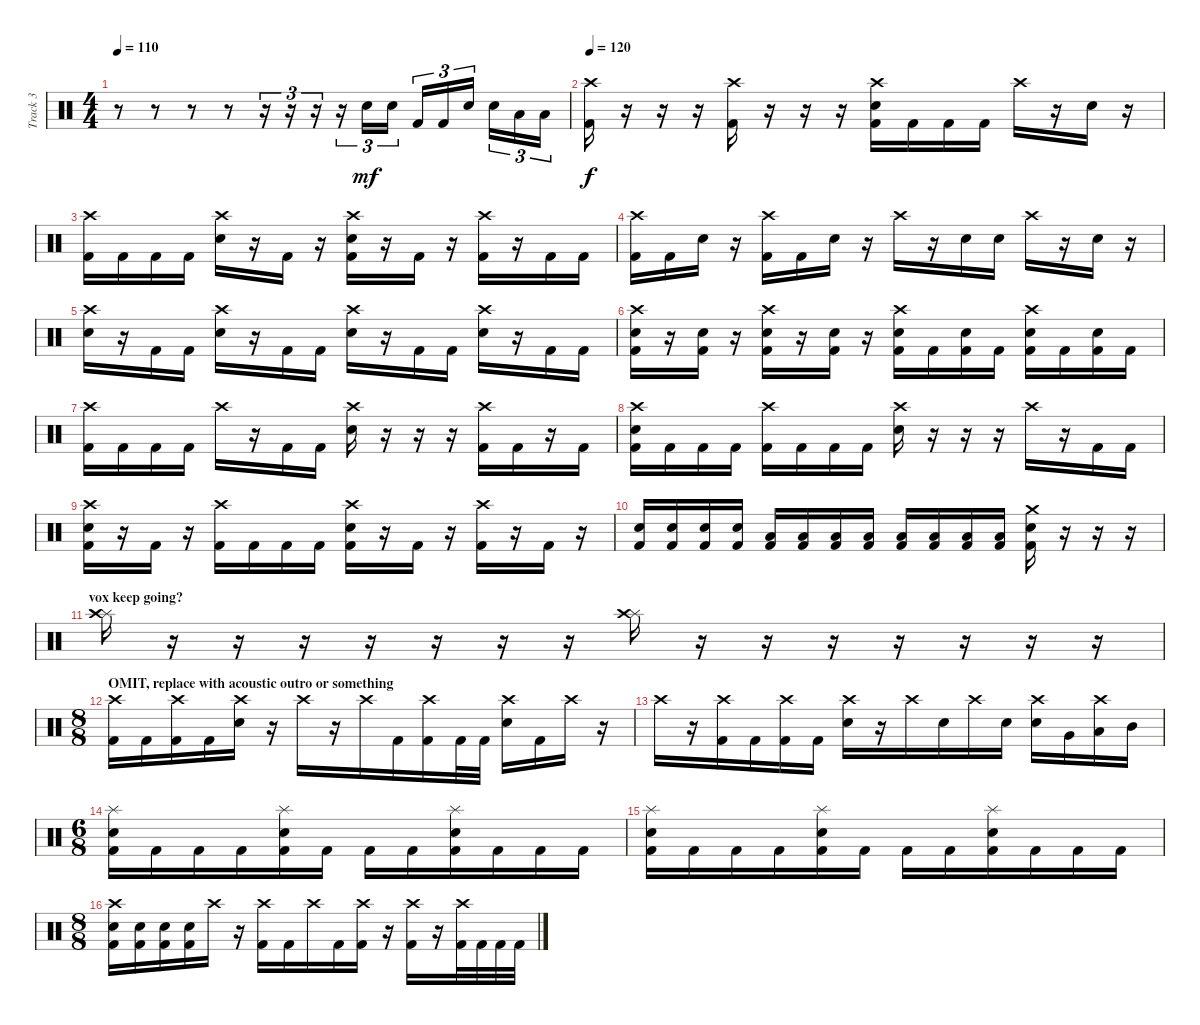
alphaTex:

\track ("Track 3" "Track 3") {instrument percussion}
\staff {score}
\articulation defaults
\ts (4 4)
\tempo 110
\clef neutral
\ks c
r.8{dy mp} r.8 r.8 r.8 r.16{tu (3 2)} r.16{tu (3 2)} r.16{tu (3 2)} r.16{tu (3 2)} "Electric Snare (hit)".16{tu (3 2) dy mf} "Electric Snare (hit)".16{tu (3 2)} "Kick (hit) 2".16{tu (3 2)} "Kick (hit) 2".16{tu (3 2)} "Electric Snare (hit)".16{tu (3 2)} "Electric Snare (hit)".16{tu (3 2)} "Low Tom (hit)".16{tu (3 2)} "Low Tom (hit)".16{tu (3 2)} |
\tempo 120
("Crash high (hit)" "Kick (hit) 2").16{dy f} r.16 r.16 r.16 ("Crash high (hit)" "Kick (hit) 2").16 r.16 r.16 r.16 ("Crash high (hit)" "Electric Snare (hit)" "Kick (hit) 2").16 "Kick (hit) 2".16 "Kick (hit) 2".16 "Kick (hit) 2".16 "Crash high (hit)".16 r.16 "Electric Snare (hit)".16 r.16 |
("Crash high (hit)" "Kick (hit) 2").16 "Kick (hit) 2".16 "Kick (hit) 2".16 "Kick (hit) 2".16 ("Crash high (hit)" "Electric Snare (hit)").16 r.16 "Kick (hit) 2".16 r.16 ("Electric Snare (hit)" "Crash high (hit)" "Kick (hit) 2").16 r.16 "Kick (hit) 2".16 r.16 ("Crash high (hit)" "Kick (hit) 2").16 r.16 "Kick (hit) 2".16 "Kick (hit) 2".16 |
("Crash high (hit)" "Kick (hit) 2").16 "Kick (hit) 2".16 "Electric Snare (hit)".16 r.16 ("Crash high (hit)" "Kick (hit) 2").16 "Kick (hit) 2".16 "Electric Snare (hit)".16 r.16 "Crash high (hit)".16 r.16 "Electric Snare (hit)".16 "Electric Snare (hit)".16 "Crash high (hit)".16 r.16 "Electric Snare (hit)".16 r.16 |
("Crash high (hit)" "Electric Snare (hit)").16 r.16 "Kick (hit) 2".16 "Kick (hit) 2".16 ("Crash high (hit)" "Electric Snare (hit)").16 r.16 "Kick (hit) 2".16 "Kick (hit) 2".16 ("Crash high (hit)" "Electric Snare (hit)").16 r.16 "Kick (hit) 2".16 "Kick (hit) 2".16 ("Crash high (hit)" "Electric Snare (hit)").16 r.16 "Kick (hit) 2".16 "Kick (hit) 2".16 |
("Kick (hit) 2" "Crash high (hit)" "Electric Snare (hit)").16 r.16 ("Kick (hit) 2" "Electric Snare (hit)").16 r.16 ("Kick (hit) 2" "Crash high (hit)" "Electric Snare (hit)").16 r.16 ("Kick (hit) 2" "Electric Snare (hit)").16 r.16 ("Kick (hit) 2" "Crash high (hit)" "Electric Snare (hit)").16 "Kick (hit) 2".16 ("Kick (hit) 2" "Electric Snare (hit)").16 "Kick (hit) 2".16 ("Kick (hit) 2" "Crash high (hit)" "Electric Snare (hit)").16 "Kick (hit) 2".16 ("Kick (hit) 2" "Electric Snare (hit)").16 "Kick (hit) 2".16 |
("Kick (hit) 2" "Crash high (hit)").16 "Kick (hit) 2".16 "Kick (hit) 2".16 "Kick (hit) 2".16 "Crash high (hit)".16 r.16 "Kick (hit) 2".16 "Kick (hit) 2".16 ("Electric Snare (hit)" "Crash high (hit)").16 r.16 r.16 r.16 ("Kick (hit) 2" "Crash high (hit)").16 "Kick (hit) 2".16 r.16 "Kick (hit) 2".16 |
("Kick (hit) 2" "Electric Snare (hit)" "Crash high (hit)").16 "Kick (hit) 2".16 "Kick (hit) 2".16 "Kick (hit) 2".16 ("Kick (hit) 2" "Crash high (hit)").16 "Kick (hit) 2".16 "Kick (hit) 2".16 "Kick (hit) 2".16 ("Electric Snare (hit)" "Crash high (hit)").16 r.16 r.16 r.16 "Crash high (hit)".16 r.16 "Kick (hit) 2".16 "Kick (hit) 2".16 |
("Crash high (hit)" "Electric Snare (hit)" "Kick (hit) 2").16 r.16 "Kick (hit) 2".16 r.16 ("Crash high (hit)" "Kick (hit) 2").16 "Kick (hit) 2".16 "Kick (hit) 2".16 "Kick (hit) 2".16 ("Crash high (hit)" "Kick (hit) 2" "Electric Snare (hit)").16 r.16 "Kick (hit) 2".16 r.16 ("Crash high (hit)" "Kick (hit) 2").16 r.16 "Kick (hit) 2".16 r.16 |
("Electric Snare (hit)" "Kick (hit) 2").16 ("Electric Snare (hit)" "Kick (hit) 2").16 ("Electric Snare (hit)" "Kick (hit) 2").16 ("Electric Snare (hit)" "Kick (hit) 2").16 ("Low Tom (hit)" "Kick (hit) 2").16 ("Low Tom (hit)" "Kick (hit) 2").16 ("Low Tom (hit)" "Kick (hit) 2").16 ("Low Tom (hit)" "Kick (hit) 2").16 ("Low Floor Tom (hit)" "Kick (hit) 2").16 ("Low Floor Tom (hit)" "Kick (hit) 2").16 ("Low Floor Tom (hit)" "Kick (hit) 2").16 ("Low Floor Tom (hit)" "Kick (hit) 2").16 ("Kick (hit) 2" "Electric Snare (hit)" "Crash medium (hit)").16 r.16 r.16 r.16 |
\section ("" "vox keep going?")
("Splash (hit)" "Crash high (hit)").16 r.16 r.16 r.16 r.16 r.16 r.16 r.16 ("Splash (hit)" "Crash high (hit)").16 r.16 r.16 r.16 r.16 r.16 r.16 r.16 |
\ts (8 8)
\section ("" "OMIT, replace with acoustic outro or something")
("Crash high (hit)" "Kick (hit) 2").16 "Kick (hit) 2".16 ("Crash high (hit)" "Kick (hit) 2").16 "Kick (hit) 2".16 ("Crash high (hit)" "Electric Snare (hit)").16 r.16 "Crash high (hit)".16 r.16 "Crash high (hit)".16 "Kick (hit) 2".16 ("Crash high (hit)" "Kick (hit) 2").16 "Kick (hit) 2".32 "Kick (hit) 2".32 ("Crash high (hit)" "Electric Snare (hit)").16 "Kick (hit) 2".16 "Crash high (hit)".16 r.16 |
"Crash high (hit)".16 r.16 ("Crash high (hit)" "Kick (hit) 2").16 "Kick (hit) 2".16 ("Crash high (hit)" "Kick (hit) 2").16 "Kick (hit) 2".16 ("Crash high (hit)" "Electric Snare (hit)").16 r.16 "Crash high (hit)".16 "Electric Snare (hit)".16 "Crash high (hit)".16 "Electric Snare (hit)".16 ("Crash high (hit)" "Electric Snare (hit)").16 "Very Low Tom (hit)".16 ("Crash high (hit)" "Low Tom (hit)").16 "Mid Tom (hit)".16 |
\ts (6 8)
("Splash (hit)" "Kick (hit) 2" "Electric Snare (hit)").16 "Kick (hit) 2".16 "Kick (hit) 2".16 "Kick (hit) 2".16 ("Splash (hit)" "Kick (hit) 2" "Electric Snare (hit)").16 "Kick (hit) 2".16 "Kick (hit) 2".16 "Kick (hit) 2".16 ("Splash (hit)" "Kick (hit) 2" "Electric Snare (hit)").16 "Kick (hit) 2".16 "Kick (hit) 2".16 "Kick (hit) 2".16 |
("Splash (hit)" "Kick (hit) 2" "Electric Snare (hit)").16 "Kick (hit) 2".16 "Kick (hit) 2".16 "Kick (hit) 2".16 ("Splash (hit)" "Kick (hit) 2" "Electric Snare (hit)").16 "Kick (hit) 2".16 "Kick (hit) 2".16 "Kick (hit) 2".16 ("Splash (hit)" "Kick (hit) 2" "Electric Snare (hit)").16 "Kick (hit) 2".16 "Kick (hit) 2".16 "Kick (hit) 2".16 |
\ts (8 8)
("Crash high (hit)" "Electric Snare (hit)" "Kick (hit) 2").16 ("Electric Snare (hit)" "Kick (hit) 2").16 ("Electric Snare (hit)" "Kick (hit) 2").16 ("Electric Snare (hit)" "Kick (hit) 2").16 "Crash high (hit)".16 r.16 ("Crash high (hit)" "Kick (hit) 2").16 "Kick (hit) 2".16 "Crash high (hit)".16 "Kick (hit) 2".16 ("Crash high (hit)" "Kick (hit) 2").16 r.16 ("Crash high (hit)" "Kick (hit) 2").16 r.16 ("Crash high (hit)" "Kick (hit) 2").32 "Kick (hit) 2".32 "Kick (hit) 2".32 "Kick (hit) 2".32
